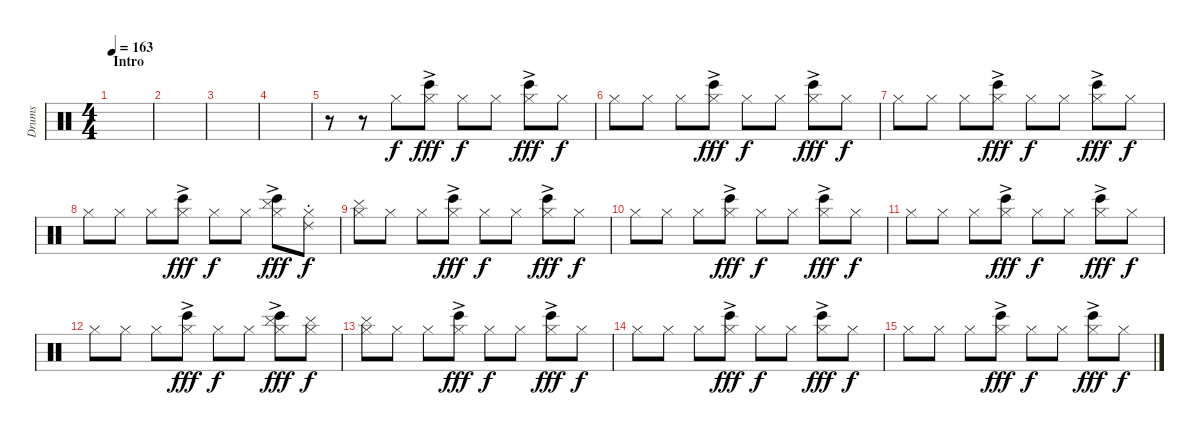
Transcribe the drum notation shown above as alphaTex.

\track ("Drums" "Drums") {instrument percussion}
\staff {score}
\articulation defaults
\ts (4 4)
\section ("" "Intro")
\tempo 163
\clef neutral
\ks c
|
|
|
|
r.8 r.8 "Hi-Hat (closed)".8 ("Hi-Hat (closed)"{ac} "Bongo High (hit)").8{dy fff} "Hi-Hat (closed)".8{dy f} "Hi-Hat (closed)".8 ("Hi-Hat (closed)"{ac} "Bongo High (hit)").8{dy fff} "Hi-Hat (closed)".8{dy f} |
"Hi-Hat (closed)".8 "Hi-Hat (closed)".8 "Hi-Hat (closed)".8 ("Hi-Hat (closed)"{ac} "Bongo High (hit)").8{dy fff} "Hi-Hat (closed)".8{dy f} "Hi-Hat (closed)".8 ("Hi-Hat (closed)"{ac} "Bongo High (hit)").8{dy fff} "Hi-Hat (closed)".8{dy f} |
"Hi-Hat (closed)".8 "Hi-Hat (closed)".8 "Hi-Hat (closed)".8 ("Hi-Hat (closed)"{ac} "Bongo High (hit)").8{dy fff} "Hi-Hat (closed)".8{dy f} "Hi-Hat (closed)".8 ("Hi-Hat (closed)"{ac} "Bongo High (hit)").8{dy fff} "Hi-Hat (closed)".8{dy f} |
"Hi-Hat (closed)".8 "Hi-Hat (closed)".8 "Hi-Hat (closed)".8 ("Hi-Hat (closed)"{ac} "Bongo High (hit)").8{dy fff} "Hi-Hat (closed)".8{dy f} "Hi-Hat (closed)".8 ("Hi-Hat (closed)"{ac} "Cymbal (hit)" "Bongo High (hit)").8{dy fff} ("Hi-Hat (closed)" "Ride (choke) 2").8{dy f} |
("Hi-Hat (closed)" "Cymbal (hit)").8 "Hi-Hat (closed)".8 "Hi-Hat (closed)".8 ("Hi-Hat (closed)"{ac} "Bongo High (hit)").8{dy fff} "Hi-Hat (closed)".8{dy f} "Hi-Hat (closed)".8 ("Hi-Hat (closed)"{ac} "Bongo High (hit)").8{dy fff} "Hi-Hat (closed)".8{dy f} |
"Hi-Hat (closed)".8 "Hi-Hat (closed)".8 "Hi-Hat (closed)".8 ("Hi-Hat (closed)"{ac} "Bongo High (hit)").8{dy fff} "Hi-Hat (closed)".8{dy f} "Hi-Hat (closed)".8 ("Hi-Hat (closed)"{ac} "Bongo High (hit)").8{dy fff} "Hi-Hat (closed)".8{dy f} |
"Hi-Hat (closed)".8 "Hi-Hat (closed)".8 "Hi-Hat (closed)".8 ("Hi-Hat (closed)"{ac} "Bongo High (hit)").8{dy fff} "Hi-Hat (closed)".8{dy f} "Hi-Hat (closed)".8 ("Hi-Hat (closed)"{ac} "Bongo High (hit)").8{dy fff} "Hi-Hat (closed)".8{dy f} |
"Hi-Hat (closed)".8 "Hi-Hat (closed)".8 "Hi-Hat (closed)".8 ("Hi-Hat (closed)"{ac} "Bongo High (hit)").8{dy fff} "Hi-Hat (closed)".8{dy f} "Hi-Hat (closed)".8 ("Hi-Hat (closed)"{ac} "Cymbal (hit)" "Bongo High (hit)").8{dy fff} ("Hi-Hat (closed)" "Cymbal (hit)").8{dy f} |
("Hi-Hat (closed)" "Cymbal (hit)").8 "Hi-Hat (closed)".8 "Hi-Hat (closed)".8 ("Hi-Hat (closed)"{ac} "Bongo High (hit)").8{dy fff} "Hi-Hat (closed)".8{dy f} "Hi-Hat (closed)".8 ("Hi-Hat (closed)"{ac} "Bongo High (hit)").8{dy fff} "Hi-Hat (closed)".8{dy f} |
"Hi-Hat (closed)".8 "Hi-Hat (closed)".8 "Hi-Hat (closed)".8 ("Hi-Hat (closed)"{ac} "Bongo High (hit)").8{dy fff} "Hi-Hat (closed)".8{dy f} "Hi-Hat (closed)".8 ("Hi-Hat (closed)"{ac} "Bongo High (hit)").8{dy fff} "Hi-Hat (closed)".8{dy f} |
"Hi-Hat (closed)".8 "Hi-Hat (closed)".8 "Hi-Hat (closed)".8 ("Hi-Hat (closed)"{ac} "Bongo High (hit)").8{dy fff} "Hi-Hat (closed)".8{dy f} "Hi-Hat (closed)".8 ("Hi-Hat (closed)"{ac} "Bongo High (hit)").8{dy fff} "Hi-Hat (closed)".8{dy f}
